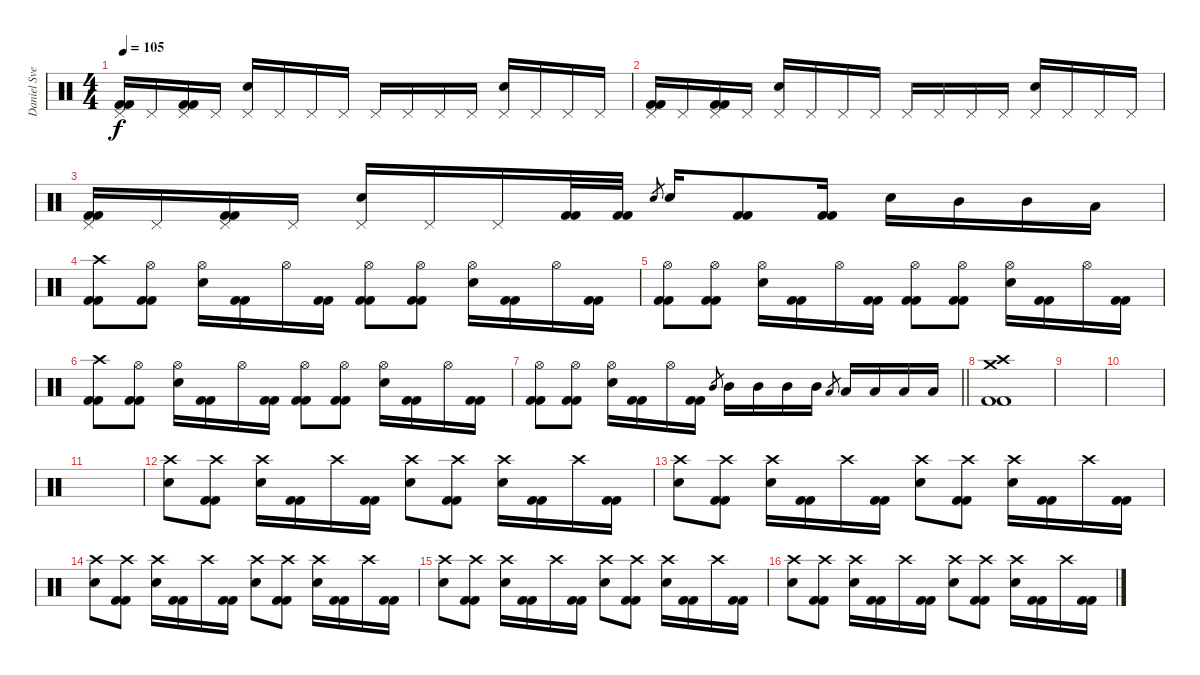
\track ("Daniel Svensson" "Daniel Sve") {instrument percussion}
\staff {score}
\articulation defaults
\ts (4 4)
\tempo 105
\clef neutral
\ks c
("Pedal Hi-Hat (hit)" "Kick (hit) 2" "Kick (hit) 2").16{dy f} "Pedal Hi-Hat (hit)".16 ("Pedal Hi-Hat (hit)" "Kick (hit) 2" "Kick (hit) 2").16 "Pedal Hi-Hat (hit)".16 ("Pedal Hi-Hat (hit)" "Electric Snare (hit)").16 "Pedal Hi-Hat (hit)".16 "Pedal Hi-Hat (hit)".16 "Pedal Hi-Hat (hit)".16 "Pedal Hi-Hat (hit)".16 "Pedal Hi-Hat (hit)".16 "Pedal Hi-Hat (hit)".16 "Pedal Hi-Hat (hit)".16 ("Pedal Hi-Hat (hit)" "Electric Snare (hit)").16 "Pedal Hi-Hat (hit)".16 "Pedal Hi-Hat (hit)".16 "Pedal Hi-Hat (hit)".16 |
("Pedal Hi-Hat (hit)" "Kick (hit) 2" "Kick (hit) 2").16 "Pedal Hi-Hat (hit)".16 ("Pedal Hi-Hat (hit)" "Kick (hit) 2" "Kick (hit) 2").16 "Pedal Hi-Hat (hit)".16 ("Pedal Hi-Hat (hit)" "Electric Snare (hit)").16 "Pedal Hi-Hat (hit)".16 "Pedal Hi-Hat (hit)".16 "Pedal Hi-Hat (hit)".16 "Pedal Hi-Hat (hit)".16 "Pedal Hi-Hat (hit)".16 "Pedal Hi-Hat (hit)".16 "Pedal Hi-Hat (hit)".16 ("Pedal Hi-Hat (hit)" "Electric Snare (hit)").16 "Pedal Hi-Hat (hit)".16 "Pedal Hi-Hat (hit)".16 "Pedal Hi-Hat (hit)".16 |
("Pedal Hi-Hat (hit)" "Kick (hit) 2" "Kick (hit) 2").16 "Pedal Hi-Hat (hit)".16 ("Pedal Hi-Hat (hit)" "Kick (hit) 2" "Kick (hit) 2").16 "Pedal Hi-Hat (hit)".16 ("Pedal Hi-Hat (hit)" "Electric Snare (hit)").16 "Pedal Hi-Hat (hit)".16 "Pedal Hi-Hat (hit)".16 ("Kick (hit) 2" "Kick (hit) 2").32 ("Kick (hit) 2" "Kick (hit) 2").32 "Electric Snare (hit)".8{gr} "Electric Snare (hit)".16 ("Kick (hit) 2" "Kick (hit) 2").8 ("Kick (hit) 2" "Kick (hit) 2").16 "Electric Snare (hit)".16 "Mid Tom (hit)".16 "Mid Tom (hit)".16 "Low Tom (hit)".16 |
("Crash high (hit)" "Kick (hit) 2" "Kick (hit) 2").8 ("Hi-Hat (open)" "Kick (hit) 2" "Kick (hit) 2").8 ("Hi-Hat (open)" "Electric Snare (hit)").16 ("Kick (hit) 2" "Kick (hit) 2").16 "Hi-Hat (open)".16 ("Kick (hit) 2" "Kick (hit) 2").16 ("Hi-Hat (open)" "Kick (hit) 2" "Kick (hit) 2").8 ("Hi-Hat (open)" "Kick (hit) 2" "Kick (hit) 2").8 ("Hi-Hat (open)" "Electric Snare (hit)").16 ("Kick (hit) 2" "Kick (hit) 2").16 "Hi-Hat (open)".16 ("Kick (hit) 2" "Kick (hit) 2").16 |
("Hi-Hat (open)" "Kick (hit) 2" "Kick (hit) 2").8 ("Hi-Hat (open)" "Kick (hit) 2" "Kick (hit) 2").8 ("Hi-Hat (open)" "Electric Snare (hit)").16 ("Kick (hit) 2" "Kick (hit) 2").16 "Hi-Hat (open)".16 ("Kick (hit) 2" "Kick (hit) 2").16 ("Hi-Hat (open)" "Kick (hit) 2" "Kick (hit) 2").8 ("Hi-Hat (open)" "Kick (hit) 2" "Kick (hit) 2").8 ("Hi-Hat (open)" "Electric Snare (hit)").16 ("Kick (hit) 2" "Kick (hit) 2").16 "Hi-Hat (open)".16 ("Kick (hit) 2" "Kick (hit) 2").16 |
("Crash high (hit)" "Kick (hit) 2" "Kick (hit) 2").8 ("Hi-Hat (open)" "Kick (hit) 2" "Kick (hit) 2").8 ("Hi-Hat (open)" "Electric Snare (hit)").16 ("Kick (hit) 2" "Kick (hit) 2").16 "Hi-Hat (open)".16 ("Kick (hit) 2" "Kick (hit) 2").16 ("Hi-Hat (open)" "Kick (hit) 2" "Kick (hit) 2").8 ("Hi-Hat (open)" "Kick (hit) 2" "Kick (hit) 2").8 ("Hi-Hat (open)" "Electric Snare (hit)").16 ("Kick (hit) 2" "Kick (hit) 2").16 "Hi-Hat (open)".16 ("Kick (hit) 2" "Kick (hit) 2").16 |
\barLineRight lightlight
("Hi-Hat (open)" "Kick (hit) 2" "Kick (hit) 2").8 ("Hi-Hat (open)" "Kick (hit) 2" "Kick (hit) 2").8 ("Hi-Hat (open)" "Electric Snare (hit)").16 ("Kick (hit) 2" "Kick (hit) 2").16 "Hi-Hat (open)".16 ("Kick (hit) 2" "Kick (hit) 2").16 "Mid Tom (hit)".8{gr} "Mid Tom (hit)".16 "Mid Tom (hit)".16 "Mid Tom (hit)".16 "Mid Tom (hit)".16 "Low Tom (hit)".8{gr} "Low Tom (hit)".16 "Low Tom (hit)".16 "Low Tom (hit)".16 "Low Tom (hit)".16 |
("Crash medium (hit)" "Crash high (hit)" "Kick (hit) 2" "Kick (hit) 2").1 |
|
|
|
("Crash high (hit)" "Electric Snare (hit)").8 ("Crash high (hit)" "Kick (hit) 2" "Kick (hit) 2").8 ("Crash high (hit)" "Electric Snare (hit)").16 ("Kick (hit) 2" "Kick (hit) 2").16 "Crash high (hit)".16 ("Kick (hit) 2" "Kick (hit) 2").16 ("Crash high (hit)" "Electric Snare (hit)").8 ("Crash high (hit)" "Kick (hit) 2" "Kick (hit) 2").8 ("Crash high (hit)" "Electric Snare (hit)").16 ("Kick (hit) 2" "Kick (hit) 2").16 "Crash high (hit)".16 ("Kick (hit) 2" "Kick (hit) 2").16 |
("Crash high (hit)" "Electric Snare (hit)").8 ("Crash high (hit)" "Kick (hit) 2" "Kick (hit) 2").8 ("Crash high (hit)" "Electric Snare (hit)").16 ("Kick (hit) 2" "Kick (hit) 2").16 "Crash high (hit)".16 ("Kick (hit) 2" "Kick (hit) 2").16 ("Crash high (hit)" "Electric Snare (hit)").8 ("Crash high (hit)" "Kick (hit) 2" "Kick (hit) 2").8 ("Crash high (hit)" "Electric Snare (hit)").16 ("Kick (hit) 2" "Kick (hit) 2").16 "Crash high (hit)".16 ("Kick (hit) 2" "Kick (hit) 2").16 |
("Crash high (hit)" "Electric Snare (hit)").8 ("Crash high (hit)" "Kick (hit) 2" "Kick (hit) 2").8 ("Crash high (hit)" "Electric Snare (hit)").16 ("Kick (hit) 2" "Kick (hit) 2").16 "Crash high (hit)".16 ("Kick (hit) 2" "Kick (hit) 2").16 ("Crash high (hit)" "Electric Snare (hit)").8 ("Crash high (hit)" "Kick (hit) 2" "Kick (hit) 2").8 ("Crash high (hit)" "Electric Snare (hit)").16 ("Kick (hit) 2" "Kick (hit) 2").16 "Crash high (hit)".16 ("Kick (hit) 2" "Kick (hit) 2").16 |
("Crash high (hit)" "Electric Snare (hit)").8 ("Crash high (hit)" "Kick (hit) 2" "Kick (hit) 2").8 ("Crash high (hit)" "Electric Snare (hit)").16 ("Kick (hit) 2" "Kick (hit) 2").16 "Crash high (hit)".16 ("Kick (hit) 2" "Kick (hit) 2").16 ("Crash high (hit)" "Electric Snare (hit)").8 ("Crash high (hit)" "Kick (hit) 2" "Kick (hit) 2").8 ("Crash high (hit)" "Electric Snare (hit)").16 ("Kick (hit) 2" "Kick (hit) 2").16 "Crash high (hit)".16 ("Kick (hit) 2" "Kick (hit) 2").16 |
("Crash high (hit)" "Electric Snare (hit)").8 ("Crash high (hit)" "Kick (hit) 2" "Kick (hit) 2").8 ("Crash high (hit)" "Electric Snare (hit)").16 ("Kick (hit) 2" "Kick (hit) 2").16 "Crash high (hit)".16 ("Kick (hit) 2" "Kick (hit) 2").16 ("Crash high (hit)" "Electric Snare (hit)").8 ("Crash high (hit)" "Kick (hit) 2" "Kick (hit) 2").8 ("Crash high (hit)" "Electric Snare (hit)").16 ("Kick (hit) 2" "Kick (hit) 2").16 "Crash high (hit)".16 ("Kick (hit) 2" "Kick (hit) 2").16
